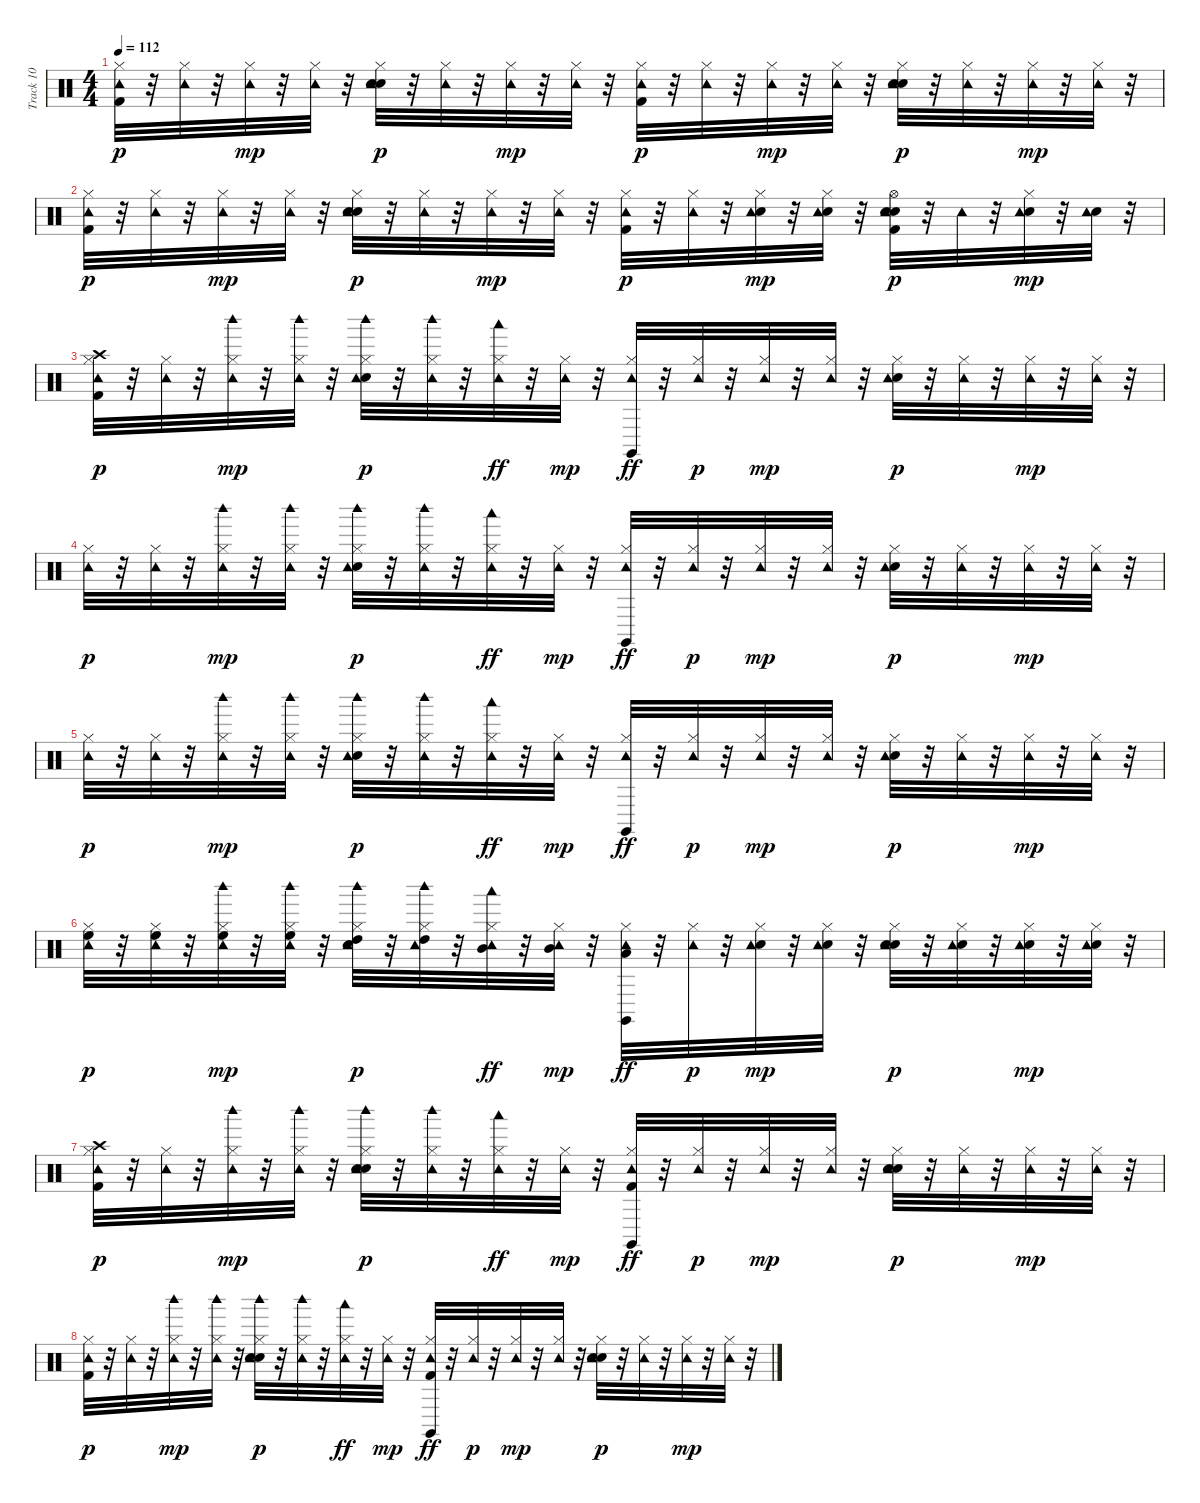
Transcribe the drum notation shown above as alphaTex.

\track ("Track 10" "Track 10") {instrument percussion}
\staff {score}
\articulation defaults
\ts (4 4)
\tempo 112
\clef neutral
\ks c
("Kick (hit) 2" "Hi-Hat (closed)" "Tambourine (hit)").32{dy p} r.32 ("Hi-Hat (closed)" "Tambourine (hit)").32 r.32 ("Hi-Hat (closed)" "Tambourine (hit)").32{dy mp} r.32 ("Hi-Hat (closed)" "Tambourine (hit)").32 r.32 ("Hand Clap (hit)" "Electric Snare (hit)" "Hi-Hat (closed)" "Tambourine (hit)").32{dy p} r.32 ("Hi-Hat (closed)" "Tambourine (hit)").32 r.32 ("Hi-Hat (closed)" "Tambourine (hit)").32{dy mp} r.32 ("Hi-Hat (closed)" "Tambourine (hit)").32 r.32 ("Kick (hit) 2" "Hi-Hat (closed)" "Tambourine (hit)").32{dy p} r.32 ("Hi-Hat (closed)" "Tambourine (hit)").32 r.32 ("Hi-Hat (closed)" "Tambourine (hit)").32{dy mp} r.32 ("Hi-Hat (closed)" "Tambourine (hit)").32 r.32 ("Hand Clap (hit)" "Electric Snare (hit)" "Hi-Hat (closed)" "Tambourine (hit)").32{dy p} r.32 ("Hi-Hat (closed)" "Tambourine (hit)").32 r.32 ("Hi-Hat (closed)" "Tambourine (hit)").32{dy mp} r.32 ("Hi-Hat (closed)" "Tambourine (hit)").32 r.32 |
("Kick (hit) 2" "Hi-Hat (closed)" "Tambourine (hit)").32{dy p} r.32 ("Hi-Hat (closed)" "Tambourine (hit)").32 r.32 ("Hi-Hat (closed)" "Tambourine (hit)").32{dy mp} r.32 ("Hi-Hat (closed)" "Tambourine (hit)").32 r.32 ("Hand Clap (hit)" "Electric Snare (hit)" "Hi-Hat (closed)" "Tambourine (hit)").32{dy p} r.32 ("Hi-Hat (closed)" "Tambourine (hit)").32 r.32 ("Hi-Hat (closed)" "Tambourine (hit)").32{dy mp} r.32 ("Hi-Hat (closed)" "Tambourine (hit)").32 r.32 ("Kick (hit) 2" "Hi-Hat (closed)" "Tambourine (hit)").32{dy p} r.32 ("Hi-Hat (closed)" "Tambourine (hit)").32 r.32 ("Hand Clap (hit)" "Hi-Hat (closed)" "Tambourine (hit)").32{dy mp} r.32 ("Hand Clap (hit)" "Hi-Hat (closed)" "Tambourine (hit)").32 r.32 ("Kick (hit) 2" "Hand Clap (hit)" "Electric Snare (hit)" "Hi-Hat (open)" "Tambourine (hit)").32{dy p} r.32 "Tambourine (hit)".32 r.32 ("Electric Snare (hit)" "Hi-Hat (closed)" "Tambourine (hit)").32{dy mp} r.32 ("Electric Snare (hit)" "Tambourine (hit)").32 r.32 |
("Kick (hit) 2" "Hi-Hat (closed)" "Crash high (hit)" "Tambourine (hit)").32{dy p} r.32 ("Hi-Hat (closed)" "Tambourine (hit)").32 r.32 ("Hi-Hat (closed)" "Tambourine (hit)" "Woodblock high (hit)").32{dy mp} r.32 ("Hi-Hat (closed)" "Tambourine (hit)" "Woodblock high (hit)").32 r.32 ("Hand Clap (hit)" "Hi-Hat (closed)" "Tambourine (hit)" "Woodblock high (hit)").32{dy p} r.32 ("Hi-Hat (closed)" "Tambourine (hit)" "Woodblock high (hit)").32 r.32 ("Hi-Hat (closed)" "Tambourine (hit)" "Woodblock low (hit)").32{dy ff} r.32 ("Hi-Hat (closed)" "Tambourine (hit)").32{dy mp} r.32 ("Hi-Hat (closed)" "Tambourine (hit)" "Claves (hit)").32{dy ff} r.32 ("Hi-Hat (closed)" "Tambourine (hit)").32{dy p} r.32 ("Hi-Hat (closed)" "Tambourine (hit)").32{dy mp} r.32 ("Hi-Hat (closed)" "Tambourine (hit)").32 r.32 ("Hand Clap (hit)" "Hi-Hat (closed)" "Tambourine (hit)").32{dy p} r.32 ("Hi-Hat (closed)" "Tambourine (hit)").32 r.32 ("Hi-Hat (closed)" "Tambourine (hit)").32{dy mp} r.32 ("Hi-Hat (closed)" "Tambourine (hit)").32 r.32 |
("Hi-Hat (closed)" "Tambourine (hit)").32{dy p} r.32 ("Hi-Hat (closed)" "Tambourine (hit)").32 r.32 ("Hi-Hat (closed)" "Tambourine (hit)" "Woodblock high (hit)").32{dy mp} r.32 ("Hi-Hat (closed)" "Tambourine (hit)" "Woodblock high (hit)").32 r.32 ("Hand Clap (hit)" "Hi-Hat (closed)" "Tambourine (hit)" "Woodblock high (hit)").32{dy p} r.32 ("Hi-Hat (closed)" "Tambourine (hit)" "Woodblock high (hit)").32 r.32 ("Hi-Hat (closed)" "Tambourine (hit)" "Woodblock low (hit)").32{dy ff} r.32 ("Hi-Hat (closed)" "Tambourine (hit)").32{dy mp} r.32 ("Hi-Hat (closed)" "Tambourine (hit)" "Claves (hit)").32{dy ff} r.32 ("Hi-Hat (closed)" "Tambourine (hit)").32{dy p} r.32 ("Hi-Hat (closed)" "Tambourine (hit)").32{dy mp} r.32 ("Hi-Hat (closed)" "Tambourine (hit)").32 r.32 ("Hand Clap (hit)" "Hi-Hat (closed)" "Tambourine (hit)").32{dy p} r.32 ("Hi-Hat (closed)" "Tambourine (hit)").32 r.32 ("Hi-Hat (closed)" "Tambourine (hit)").32{dy mp} r.32 ("Hi-Hat (closed)" "Tambourine (hit)").32 r.32 |
("Hi-Hat (closed)" "Tambourine (hit)").32{dy p} r.32 ("Hi-Hat (closed)" "Tambourine (hit)").32 r.32 ("Hi-Hat (closed)" "Tambourine (hit)" "Woodblock high (hit)").32{dy mp} r.32 ("Hi-Hat (closed)" "Tambourine (hit)" "Woodblock high (hit)").32 r.32 ("Hand Clap (hit)" "Hi-Hat (closed)" "Tambourine (hit)" "Woodblock high (hit)").32{dy p} r.32 ("Hi-Hat (closed)" "Tambourine (hit)" "Woodblock high (hit)").32 r.32 ("Hi-Hat (closed)" "Tambourine (hit)" "Woodblock low (hit)").32{dy ff} r.32 ("Hi-Hat (closed)" "Tambourine (hit)").32{dy mp} r.32 ("Hi-Hat (closed)" "Tambourine (hit)" "Claves (hit)").32{dy ff} r.32 ("Hi-Hat (closed)" "Tambourine (hit)").32{dy p} r.32 ("Hi-Hat (closed)" "Tambourine (hit)").32{dy mp} r.32 ("Hi-Hat (closed)" "Tambourine (hit)").32 r.32 ("Hand Clap (hit)" "Hi-Hat (closed)" "Tambourine (hit)").32{dy p} r.32 ("Hi-Hat (closed)" "Tambourine (hit)").32 r.32 ("Hi-Hat (closed)" "Tambourine (hit)").32{dy mp} r.32 ("Hi-Hat (closed)" "Tambourine (hit)").32 r.32 |
("Hi-Hat (closed)" "High Floor Tom (hit)" "Tambourine (hit)").32{dy p} r.32 ("Hi-Hat (closed)" "High Floor Tom (hit)" "Tambourine (hit)").32 r.32 ("Hi-Hat (closed)" "High Floor Tom (hit)" "Tambourine (hit)" "Woodblock high (hit)").32{dy mp} r.32 ("Hi-Hat (closed)" "High Floor Tom (hit)" "Tambourine (hit)" "Woodblock high (hit)").32 r.32 ("Hand Clap (hit)" "Hi-Hat (closed)" "High Tom (hit)" "Tambourine (hit)" "Woodblock high (hit)").32{dy p} r.32 ("Hi-Hat (closed)" "High Tom (hit)" "Tambourine (hit)" "Woodblock high (hit)").32 r.32 ("Hi-Hat (closed)" "Mid Tom (hit)" "Tambourine (hit)" "Woodblock low (hit)").32{dy ff} r.32 ("Hi-Hat (closed)" "Mid Tom (hit)" "Tambourine (hit)").32{dy mp} r.32 ("Hi-Hat (closed)" "Low Tom (hit)" "Tambourine (hit)" "Claves (hit)").32{dy ff} r.32 ("Hi-Hat (closed)" "Tambourine (hit)").32{dy p} r.32 ("Electric Snare (hit)" "Hi-Hat (closed)" "Tambourine (hit)").32{dy mp} r.32 ("Electric Snare (hit)" "Hi-Hat (closed)" "Tambourine (hit)").32 r.32 ("Hand Clap (hit)" "Electric Snare (hit)" "Hi-Hat (closed)" "Tambourine (hit)").32{dy p} r.32 ("Electric Snare (hit)" "Hi-Hat (closed)" "Tambourine (hit)").32 r.32 ("Electric Snare (hit)" "Hi-Hat (closed)" "Tambourine (hit)").32{dy mp} r.32 ("Electric Snare (hit)" "Hi-Hat (closed)" "Tambourine (hit)").32 r.32 |
("Kick (hit) 2" "Hi-Hat (closed)" "Crash high (hit)" "Tambourine (hit)").32{dy p} r.32 ("Hi-Hat (closed)" "Tambourine (hit)").32 r.32 ("Hi-Hat (closed)" "Tambourine (hit)" "Woodblock high (hit)").32{dy mp} r.32 ("Hi-Hat (closed)" "Tambourine (hit)" "Woodblock high (hit)").32 r.32 ("Hand Clap (hit)" "Electric Snare (hit)" "Hi-Hat (closed)" "Tambourine (hit)" "Woodblock high (hit)").32{dy p} r.32 ("Hi-Hat (closed)" "Tambourine (hit)" "Woodblock high (hit)").32 r.32 ("Hi-Hat (closed)" "Tambourine (hit)" "Woodblock low (hit)").32{dy ff} r.32 ("Hi-Hat (closed)" "Tambourine (hit)").32{dy mp} r.32 ("Kick (hit) 2" "Hi-Hat (closed)" "Tambourine (hit)" "Claves (hit)").32{dy ff} r.32 ("Hi-Hat (closed)" "Tambourine (hit)").32{dy p} r.32 ("Hi-Hat (closed)" "Tambourine (hit)").32{dy mp} r.32 ("Hi-Hat (closed)" "Tambourine (hit)").32 r.32 ("Hand Clap (hit)" "Electric Snare (hit)" "Hi-Hat (closed)" "Tambourine (hit)").32{dy p} r.32 ("Hi-Hat (closed)" "Tambourine (hit)").32 r.32 ("Hi-Hat (closed)" "Tambourine (hit)").32{dy mp} r.32 ("Hi-Hat (closed)" "Tambourine (hit)").32 r.32 |
("Kick (hit) 2" "Hi-Hat (closed)" "Tambourine (hit)").32{dy p} r.32 ("Hi-Hat (closed)" "Tambourine (hit)").32 r.32 ("Hi-Hat (closed)" "Tambourine (hit)" "Woodblock high (hit)").32{dy mp} r.32 ("Hi-Hat (closed)" "Tambourine (hit)" "Woodblock high (hit)").32 r.32 ("Hand Clap (hit)" "Electric Snare (hit)" "Hi-Hat (closed)" "Tambourine (hit)" "Woodblock high (hit)").32{dy p} r.32 ("Hi-Hat (closed)" "Tambourine (hit)" "Woodblock high (hit)").32 r.32 ("Hi-Hat (closed)" "Tambourine (hit)" "Woodblock low (hit)").32{dy ff} r.32 ("Hi-Hat (closed)" "Tambourine (hit)").32{dy mp} r.32 ("Kick (hit) 2" "Hi-Hat (closed)" "Tambourine (hit)" "Claves (hit)").32{dy ff} r.32 ("Hi-Hat (closed)" "Tambourine (hit)").32{dy p} r.32 ("Hi-Hat (closed)" "Tambourine (hit)").32{dy mp} r.32 ("Hi-Hat (closed)" "Tambourine (hit)").32 r.32 ("Hand Clap (hit)" "Electric Snare (hit)" "Hi-Hat (closed)" "Tambourine (hit)").32{dy p} r.32 ("Hi-Hat (closed)" "Tambourine (hit)").32 r.32 ("Hi-Hat (closed)" "Tambourine (hit)").32{dy mp} r.32 ("Hi-Hat (closed)" "Tambourine (hit)").32 r.32
